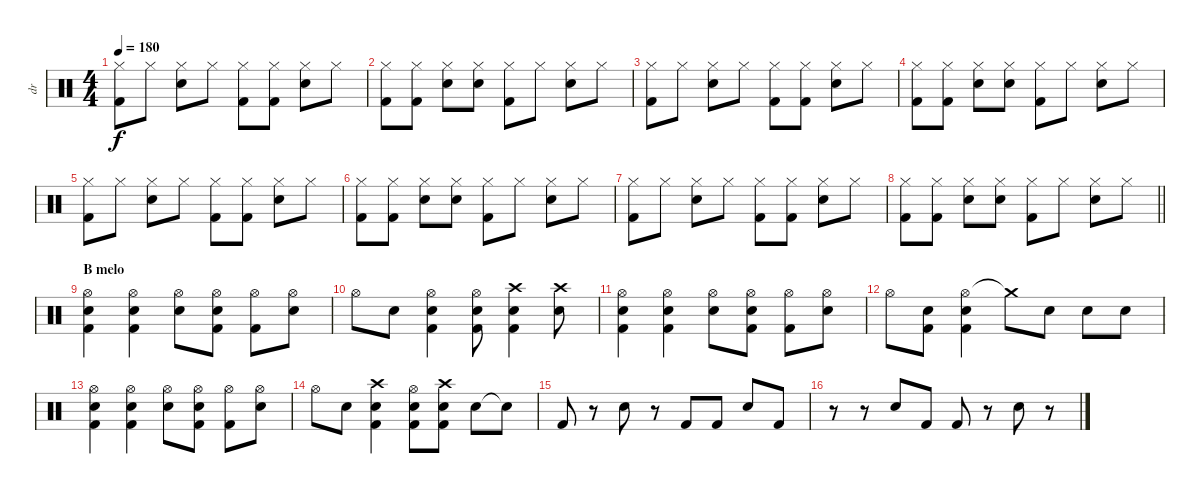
\track ("dr" "dr") {instrument percussion}
\staff {score}
\articulation defaults
\ts (4 4)
\tempo 180
\clef neutral
\ks c
("Hi-Hat (closed)" "Kick (hit) 2").8{dy f} "Hi-Hat (closed)".8 ("Hi-Hat (closed)" "Electric Snare (hit)").8 "Hi-Hat (closed)".8 ("Hi-Hat (closed)" "Kick (hit) 2").8 ("Hi-Hat (closed)" "Kick (hit) 2").8 ("Hi-Hat (closed)" "Electric Snare (hit)").8 "Hi-Hat (closed)".8 |
("Hi-Hat (closed)" "Kick (hit) 2").8 ("Hi-Hat (closed)" "Kick (hit) 2").8 ("Hi-Hat (closed)" "Electric Snare (hit)").8 ("Hi-Hat (closed)" "Electric Snare (hit)").8 ("Hi-Hat (closed)" "Kick (hit) 2").8 "Hi-Hat (closed)".8 ("Hi-Hat (closed)" "Electric Snare (hit)").8 "Hi-Hat (closed)".8 |
("Hi-Hat (closed)" "Kick (hit) 2").8 "Hi-Hat (closed)".8 ("Hi-Hat (closed)" "Electric Snare (hit)").8 "Hi-Hat (closed)".8 ("Hi-Hat (closed)" "Kick (hit) 2").8 ("Hi-Hat (closed)" "Kick (hit) 2").8 ("Hi-Hat (closed)" "Electric Snare (hit)").8 "Hi-Hat (closed)".8 |
("Hi-Hat (closed)" "Kick (hit) 2").8 ("Hi-Hat (closed)" "Kick (hit) 2").8 ("Hi-Hat (closed)" "Electric Snare (hit)").8 ("Hi-Hat (closed)" "Electric Snare (hit)").8 ("Hi-Hat (closed)" "Kick (hit) 2").8 "Hi-Hat (closed)".8 ("Hi-Hat (closed)" "Electric Snare (hit)").8 "Hi-Hat (closed)".8 |
("Hi-Hat (closed)" "Kick (hit) 2").8 "Hi-Hat (closed)".8 ("Hi-Hat (closed)" "Electric Snare (hit)").8 "Hi-Hat (closed)".8 ("Hi-Hat (closed)" "Kick (hit) 2").8 ("Hi-Hat (closed)" "Kick (hit) 2").8 ("Hi-Hat (closed)" "Electric Snare (hit)").8 "Hi-Hat (closed)".8 |
("Hi-Hat (closed)" "Kick (hit) 2").8 ("Hi-Hat (closed)" "Kick (hit) 2").8 ("Hi-Hat (closed)" "Electric Snare (hit)").8 ("Hi-Hat (closed)" "Electric Snare (hit)").8 ("Hi-Hat (closed)" "Kick (hit) 2").8 "Hi-Hat (closed)".8 ("Hi-Hat (closed)" "Electric Snare (hit)").8 "Hi-Hat (closed)".8 |
("Hi-Hat (closed)" "Kick (hit) 2").8 "Hi-Hat (closed)".8 ("Hi-Hat (closed)" "Electric Snare (hit)").8 "Hi-Hat (closed)".8 ("Hi-Hat (closed)" "Kick (hit) 2").8 ("Hi-Hat (closed)" "Kick (hit) 2").8 ("Hi-Hat (closed)" "Electric Snare (hit)").8 "Hi-Hat (closed)".8 |
\barLineRight lightlight
("Hi-Hat (closed)" "Kick (hit) 2").8 ("Hi-Hat (closed)" "Kick (hit) 2").8 ("Hi-Hat (closed)" "Electric Snare (hit)").8 ("Hi-Hat (closed)" "Electric Snare (hit)").8 ("Hi-Hat (closed)" "Kick (hit) 2").8 "Hi-Hat (closed)".8 ("Hi-Hat (closed)" "Electric Snare (hit)").8 "Hi-Hat (closed)".8 |
\section ("" "B melo")
("Hi-Hat (open)" "Electric Snare (hit)" "Kick (hit) 2").4 ("Hi-Hat (open)" "Electric Snare (hit)" "Kick (hit) 2").4 ("Hi-Hat (open)" "Electric Snare (hit)").8 ("Hi-Hat (open)" "Electric Snare (hit)" "Kick (hit) 2").8 ("Hi-Hat (open)" "Kick (hit) 2").8 ("Hi-Hat (open)" "Electric Snare (hit)").8 |
"Hi-Hat (open)".8 "Electric Snare (hit)".8 ("Hi-Hat (open)" "Electric Snare (hit)" "Kick (hit) 2").4 ("Hi-Hat (open)" "Electric Snare (hit)" "Kick (hit) 2").8 ("Crash high (hit)" "Electric Snare (hit)" "Kick (hit) 2").4 ("Crash high (hit)" "Electric Snare (hit)").8 |
("Hi-Hat (open)" "Electric Snare (hit)" "Kick (hit) 2").4 ("Hi-Hat (open)" "Electric Snare (hit)" "Kick (hit) 2").4 ("Hi-Hat (open)" "Electric Snare (hit)").8 ("Hi-Hat (open)" "Electric Snare (hit)" "Kick (hit) 2").8 ("Hi-Hat (open)" "Kick (hit) 2").8 ("Hi-Hat (open)" "Electric Snare (hit)").8 |
"Hi-Hat (open)".8 ("Electric Snare (hit)" "Kick (hit) 2").8 ("Hi-Hat (open)" "Electric Snare (hit)" "Kick (hit) 2").4 "Crash medium (hit)"{t}.8 "Electric Snare (hit)".8 "Electric Snare (hit)".8 "Electric Snare (hit)".8 |
("Hi-Hat (open)" "Electric Snare (hit)" "Kick (hit) 2").4 ("Hi-Hat (open)" "Electric Snare (hit)" "Kick (hit) 2").4 ("Hi-Hat (open)" "Electric Snare (hit)").8 ("Hi-Hat (open)" "Electric Snare (hit)" "Kick (hit) 2").8 ("Hi-Hat (open)" "Kick (hit) 2").8 ("Hi-Hat (open)" "Electric Snare (hit)").8 |
"Hi-Hat (open)".8 "Electric Snare (hit)".8 ("Crash high (hit)" "Electric Snare (hit)" "Kick (hit) 2").4 ("Hi-Hat (open)" "Electric Snare (hit)" "Kick (hit) 2").8 ("Crash high (hit)" "Electric Snare (hit)" "Kick (hit) 2").8 "Electric Snare (hit)".8 "Snare (hit)"{t}.8 |
"Kick (hit) 2".8 r.8 "Electric Snare (hit)".8 r.8 "Kick (hit) 2".8 "Kick (hit) 2".8 "Electric Snare (hit)".8 "Kick (hit) 2".8 |
r.8 r.8 "Electric Snare (hit)".8 "Kick (hit) 2".8 "Kick (hit) 2".8 r.8 "Electric Snare (hit)".8 r.8
